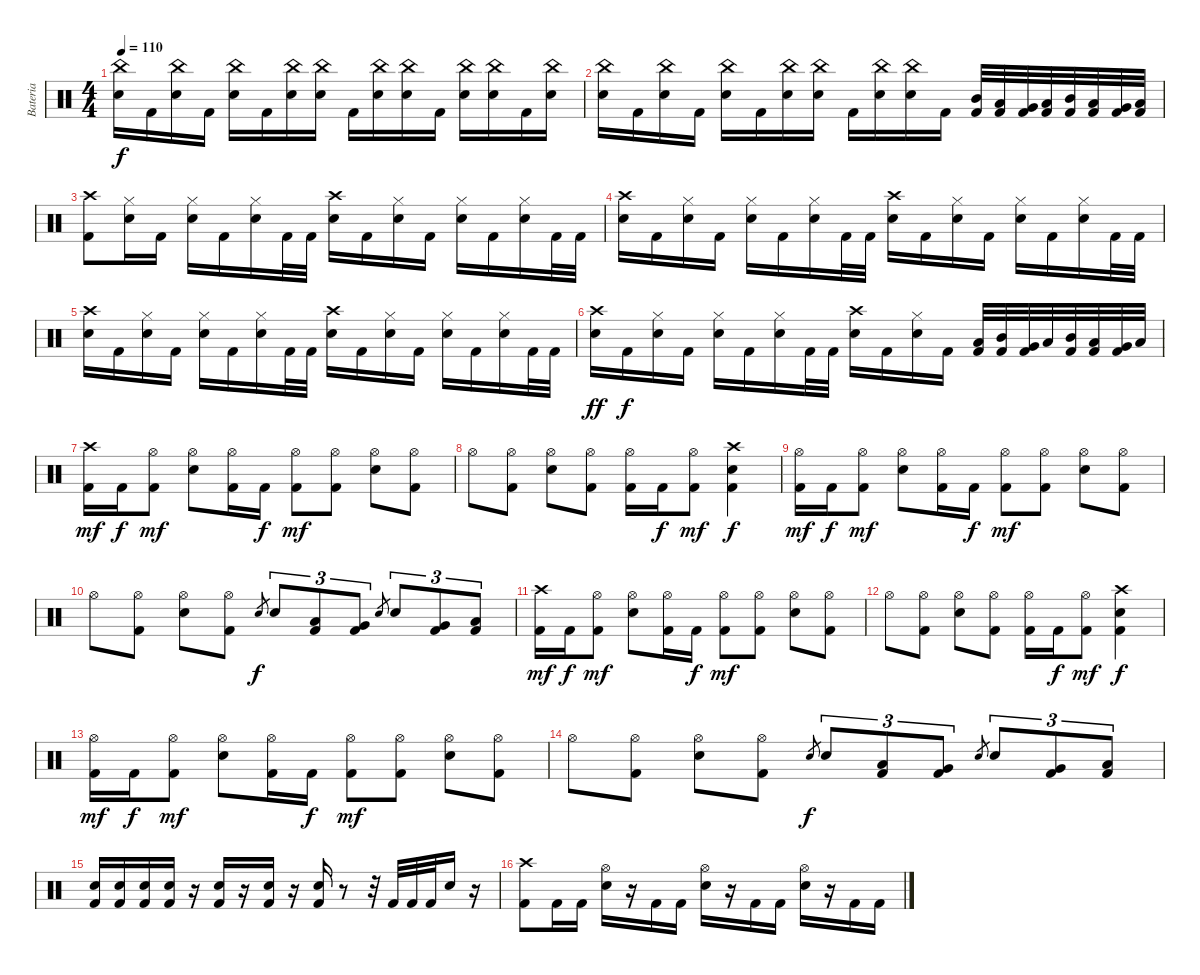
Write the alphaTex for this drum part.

\track ("Bateria" "Bateria") {instrument percussion}
\staff {score}
\articulation defaults
\ts (4 4)
\tempo 110
\clef neutral
\ks c
("China (hit)" "Electric Snare (hit)").16{dy f} "Kick (hit) 2".16 ("China (hit)" "Electric Snare (hit)").16 "Kick (hit) 2".16 ("China (hit)" "Electric Snare (hit)").16 "Kick (hit) 2".16 ("China (hit)" "Electric Snare (hit)").16 ("China (hit)" "Electric Snare (hit)").16 "Kick (hit) 2".16 ("China (hit)" "Electric Snare (hit)").16 ("China (hit)" "Electric Snare (hit)").16 "Kick (hit) 2".16 ("China (hit)" "Electric Snare (hit)").16 ("China (hit)" "Electric Snare (hit)").16 "Kick (hit) 2".16 ("China (hit)" "Electric Snare (hit)").16 |
("China (hit)" "Electric Snare (hit)").16 "Kick (hit) 2".16 ("China (hit)" "Electric Snare (hit)").16 "Kick (hit) 2".16 ("China (hit)" "Electric Snare (hit)").16 "Kick (hit) 2".16 ("China (hit)" "Electric Snare (hit)").16 ("China (hit)" "Electric Snare (hit)").16 "Kick (hit) 2".16 ("China (hit)" "Electric Snare (hit)").16 ("China (hit)" "Electric Snare (hit)").16 "Kick (hit) 2".16 ("Mid Tom (hit)" "Kick (hit) 2").32 ("Low Tom (hit)" "Kick (hit) 2").32 ("Very Low Tom (hit)" "Kick (hit) 2").32 ("Low Floor Tom (hit)" "Kick (hit) 2").32 ("Mid Tom (hit)" "Kick (hit) 2").32 ("Low Tom (hit)" "Kick (hit) 2").32 ("Very Low Tom (hit)" "Kick (hit) 2").32 ("Low Floor Tom (hit)" "Kick (hit) 2").32 |
("Crash high (hit)" "Kick (hit) 2").8 ("Hi-Hat (closed)" "Electric Snare (hit)").16 "Kick (hit) 2".16 ("Hi-Hat (closed)" "Electric Snare (hit)").16 "Kick (hit) 2".16 ("Hi-Hat (closed)" "Electric Snare (hit)").16 "Kick (hit) 2".32 "Kick (hit) 2".32 ("Crash high (hit)" "Electric Snare (hit)").16 "Kick (hit) 2".16 ("Hi-Hat (closed)" "Electric Snare (hit)").16 "Kick (hit) 2".16 ("Hi-Hat (closed)" "Electric Snare (hit)").16 "Kick (hit) 2".16 ("Hi-Hat (closed)" "Electric Snare (hit)").16 "Kick (hit) 2".32 "Kick (hit) 2".32 |
("Crash high (hit)" "Electric Snare (hit)").16 "Kick (hit) 2".16 ("Hi-Hat (closed)" "Electric Snare (hit)").16 "Kick (hit) 2".16 ("Hi-Hat (closed)" "Electric Snare (hit)").16 "Kick (hit) 2".16 ("Hi-Hat (closed)" "Electric Snare (hit)").16 "Kick (hit) 2".32 "Kick (hit) 2".32 ("Crash high (hit)" "Electric Snare (hit)").16 "Kick (hit) 2".16 ("Hi-Hat (closed)" "Electric Snare (hit)").16 "Kick (hit) 2".16 ("Hi-Hat (closed)" "Electric Snare (hit)").16 "Kick (hit) 2".16 ("Hi-Hat (closed)" "Electric Snare (hit)").16 "Kick (hit) 2".32 "Kick (hit) 2".32 |
("Crash high (hit)" "Electric Snare (hit)").16 "Kick (hit) 2".16 ("Hi-Hat (closed)" "Electric Snare (hit)").16 "Kick (hit) 2".16 ("Hi-Hat (closed)" "Electric Snare (hit)").16 "Kick (hit) 2".16 ("Hi-Hat (closed)" "Electric Snare (hit)").16 "Kick (hit) 2".32 "Kick (hit) 2".32 ("Crash high (hit)" "Electric Snare (hit)").16 "Kick (hit) 2".16 ("Hi-Hat (closed)" "Electric Snare (hit)").16 "Kick (hit) 2".16 ("Hi-Hat (closed)" "Electric Snare (hit)").16 "Kick (hit) 2".16 ("Hi-Hat (closed)" "Electric Snare (hit)").16 "Kick (hit) 2".32 "Kick (hit) 2".32 |
("Crash high (hit)" "Electric Snare (hit)").16{dy ff} "Kick (hit) 2".16{dy f} ("Hi-Hat (closed)" "Electric Snare (hit)").16 "Kick (hit) 2".16 ("Hi-Hat (closed)" "Electric Snare (hit)").16 "Kick (hit) 2".16 ("Hi-Hat (closed)" "Electric Snare (hit)").16 "Kick (hit) 2".32 "Kick (hit) 2".32 ("Crash high (hit)" "Electric Snare (hit)").16 "Kick (hit) 2".16 ("Hi-Hat (closed)" "Electric Snare (hit)").16 "Kick (hit) 2".16 ("Low Tom (hit)" "Kick (hit) 2").32 ("Mid Tom (hit)" "Kick (hit) 2").32 ("Very Low Tom (hit)" "Kick (hit) 2").32 "Low Tom (hit)".32 ("Mid Tom (hit)" "Kick (hit) 2").32 ("Low Tom (hit)" "Kick (hit) 2").32 ("Very Low Tom (hit)" "Kick (hit) 2").32 "Low Floor Tom (hit)".32 |
("Crash high (hit)" "Kick (hit) 2").16{dy mf} "Kick (hit) 2".16{dy f} ("Hi-Hat (open)" "Kick (hit) 2").8{dy mf} ("Hi-Hat (open)" "Electric Snare (hit)").8 ("Hi-Hat (open)" "Kick (hit) 2").16 "Kick (hit) 2".16{dy f} ("Hi-Hat (open)" "Kick (hit) 2").8{dy mf} ("Hi-Hat (open)" "Kick (hit) 2").8 ("Hi-Hat (open)" "Electric Snare (hit)").8 ("Hi-Hat (open)" "Kick (hit) 2").8 |
"Hi-Hat (open)".8 ("Hi-Hat (open)" "Kick (hit) 2").8 ("Hi-Hat (open)" "Electric Snare (hit)").8 ("Hi-Hat (open)" "Kick (hit) 2").8 ("Hi-Hat (open)" "Kick (hit) 2").16 "Kick (hit) 2".16{dy f} ("Hi-Hat (open)" "Kick (hit) 2").8{dy mf} ("Crash high (hit)" "Electric Snare (hit)" "Kick (hit) 2").4{dy f} |
("Hi-Hat (open)" "Kick (hit) 2").16{dy mf} "Kick (hit) 2".16{dy f} ("Hi-Hat (open)" "Kick (hit) 2").8{dy mf} ("Hi-Hat (open)" "Electric Snare (hit)").8 ("Hi-Hat (open)" "Kick (hit) 2").16 "Kick (hit) 2".16{dy f} ("Hi-Hat (open)" "Kick (hit) 2").8{dy mf} ("Hi-Hat (open)" "Kick (hit) 2").8 ("Hi-Hat (open)" "Electric Snare (hit)").8 ("Hi-Hat (open)" "Kick (hit) 2").8 |
"Hi-Hat (open)".8 ("Hi-Hat (open)" "Kick (hit) 2").8 ("Hi-Hat (open)" "Electric Snare (hit)").8 ("Hi-Hat (open)" "Kick (hit) 2").8 "Electric Snare (hit)".8{gr dy f} "Electric Snare (hit)".8{tu (3 2)} ("Low Tom (hit)" "Kick (hit) 2").8{tu (3 2)} ("Very Low Tom (hit)" "Kick (hit) 2").8{tu (3 2)} "Electric Snare (hit)".8{gr} "Electric Snare (hit)".8{tu (3 2)} ("Very Low Tom (hit)" "Kick (hit) 2").8{tu (3 2)} ("Low Floor Tom (hit)" "Kick (hit) 2").8{tu (3 2)} |
("Crash high (hit)" "Kick (hit) 2").16{dy mf} "Kick (hit) 2".16{dy f} ("Hi-Hat (open)" "Kick (hit) 2").8{dy mf} ("Hi-Hat (open)" "Electric Snare (hit)").8 ("Hi-Hat (open)" "Kick (hit) 2").16 "Kick (hit) 2".16{dy f} ("Hi-Hat (open)" "Kick (hit) 2").8{dy mf} ("Hi-Hat (open)" "Kick (hit) 2").8 ("Hi-Hat (open)" "Electric Snare (hit)").8 ("Hi-Hat (open)" "Kick (hit) 2").8 |
"Hi-Hat (open)".8 ("Hi-Hat (open)" "Kick (hit) 2").8 ("Hi-Hat (open)" "Electric Snare (hit)").8 ("Hi-Hat (open)" "Kick (hit) 2").8 ("Hi-Hat (open)" "Kick (hit) 2").16 "Kick (hit) 2".16{dy f} ("Hi-Hat (open)" "Kick (hit) 2").8{dy mf} ("Crash high (hit)" "Electric Snare (hit)" "Kick (hit) 2").4{dy f} |
("Hi-Hat (open)" "Kick (hit) 2").16{dy mf} "Kick (hit) 2".16{dy f} ("Hi-Hat (open)" "Kick (hit) 2").8{dy mf} ("Hi-Hat (open)" "Electric Snare (hit)").8 ("Hi-Hat (open)" "Kick (hit) 2").16 "Kick (hit) 2".16{dy f} ("Hi-Hat (open)" "Kick (hit) 2").8{dy mf} ("Hi-Hat (open)" "Kick (hit) 2").8 ("Hi-Hat (open)" "Electric Snare (hit)").8 ("Hi-Hat (open)" "Kick (hit) 2").8 |
"Hi-Hat (open)".8 ("Hi-Hat (open)" "Kick (hit) 2").8 ("Hi-Hat (open)" "Electric Snare (hit)").8 ("Hi-Hat (open)" "Kick (hit) 2").8 "Electric Snare (hit)".8{gr dy f} "Electric Snare (hit)".8{tu (3 2)} ("Low Tom (hit)" "Kick (hit) 2").8{tu (3 2)} ("Very Low Tom (hit)" "Kick (hit) 2").8{tu (3 2)} "Electric Snare (hit)".8{gr} "Electric Snare (hit)".8{tu (3 2)} ("Very Low Tom (hit)" "Kick (hit) 2").8{tu (3 2)} ("Low Floor Tom (hit)" "Kick (hit) 2").8{tu (3 2)} |
("Electric Snare (hit)" "Kick (hit) 2").16 ("Electric Snare (hit)" "Kick (hit) 2").16 ("Electric Snare (hit)" "Kick (hit) 2").16 ("Electric Snare (hit)" "Kick (hit) 2").16 r.16 ("Electric Snare (hit)" "Kick (hit) 2").16 r.16 ("Electric Snare (hit)" "Kick (hit) 2").16 r.16 ("Electric Snare (hit)" "Kick (hit) 2").16 r.8 r.32 "Kick (hit) 2".32 "Kick (hit) 2".32 "Kick (hit) 2".32 "Electric Snare (hit)".16 r.16 |
("Crash high (hit)" "Kick (hit) 2").8 "Kick (hit) 2".16 "Kick (hit) 2".16 ("Hi-Hat (open)" "Electric Snare (hit)").16 r.16 "Kick (hit) 2".16 "Kick (hit) 2".16 ("Hi-Hat (open)" "Electric Snare (hit)").16 r.16 "Kick (hit) 2".16 "Kick (hit) 2".16 ("Hi-Hat (open)" "Electric Snare (hit)").16 r.16 "Kick (hit) 2".16 "Kick (hit) 2".16
